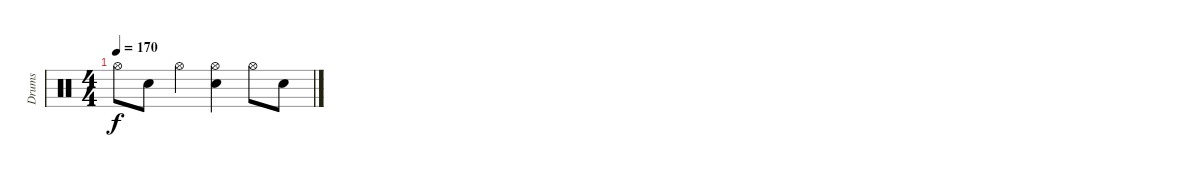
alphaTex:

\track ("Drums" "Drums") {instrument percussion}
\staff {score}
\articulation defaults
\ts (4 4)
\tempo 170
\clef neutral
\ks c "Hi-Hat (open)".8{dy f} "Electric Snare (hit)".8 "Hi-Hat (open)".4
("Electric Snare (hit)" "Hi-Hat (open)").4 "Hi-Hat (open)".8 "Electric Snare (hit)".8
